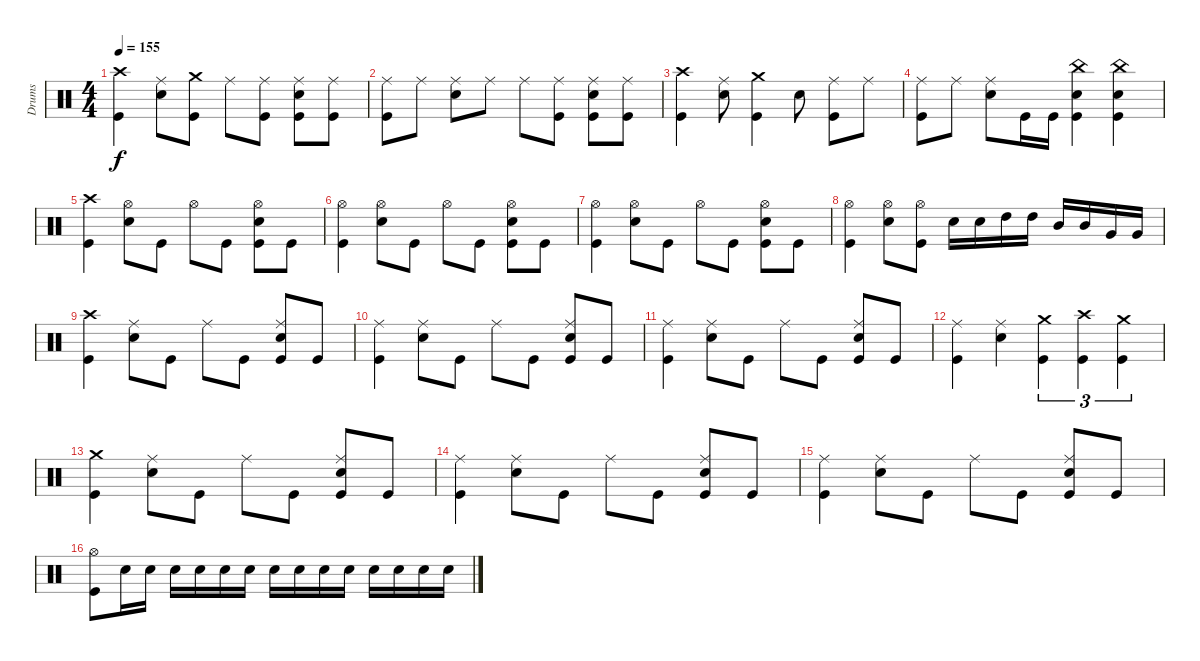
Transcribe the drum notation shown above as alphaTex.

\track ("Drums" "Drums") {instrument percussion}
\staff {score}
\articulation defaults
\ts (4 4)
\tempo 155
\clef neutral
\ks c
("Crash high (hit)" "Kick (hit)").4{dy f} ("Ride (middle)" "Snare (hit) 2").8 ("Crash medium (hit)" "Kick (hit)").8 "Ride (middle)".8 ("Ride (middle)" "Kick (hit)").8 ("Ride (middle)" "Snare (hit) 2" "Kick (hit)").8 ("Ride (middle)" "Kick (hit)").8 |
("Ride (middle)" "Kick (hit)").8 "Ride (middle)".8 ("Ride (middle)" "Snare (hit) 2").8 "Ride (middle)".8 "Ride (middle)".8 ("Ride (middle)" "Kick (hit)").8 ("Ride (middle)" "Snare (hit) 2" "Kick (hit)").8 ("Ride (middle)" "Kick (hit)").8 |
("Crash high (hit)" "Kick (hit)").4 ("Ride (middle)" "Snare (hit) 2").8 ("Crash medium (hit)" "Kick (hit)").4 "Snare (hit) 2".8 ("Ride (middle)" "Kick (hit)").8 "Ride (middle)".8 |
("Ride (middle)" "Kick (hit)").8 "Ride (middle)".8 ("Ride (middle)" "Snare (hit) 2").8 "Kick (hit)".16 "Kick (hit)".16 ("China (hit)" "Snare (hit) 2" "Kick (hit)").4 ("China (hit)" "Snare (hit) 2" "Kick (hit)").4 |
("Crash high (hit)" "Kick (hit)").4 ("Hi-Hat (open)" "Snare (hit) 2").8 "Kick (hit)".8 "Hi-Hat (open)".8 "Kick (hit)".8 ("Hi-Hat (open)" "Snare (hit) 2" "Kick (hit)").8 "Kick (hit)".8 |
("Hi-Hat (open)" "Kick (hit)").4 ("Hi-Hat (open)" "Snare (hit) 2").8 "Kick (hit)".8 "Hi-Hat (open)".8 "Kick (hit)".8 ("Hi-Hat (open)" "Snare (hit) 2" "Kick (hit)").8 "Kick (hit)".8 |
("Hi-Hat (open)" "Kick (hit)").4 ("Hi-Hat (open)" "Snare (hit) 2").8 "Kick (hit)".8 "Hi-Hat (open)".8 "Kick (hit)".8 ("Hi-Hat (open)" "Snare (hit) 2" "Kick (hit)").8 "Kick (hit)".8 |
("Hi-Hat (open)" "Kick (hit)").4 ("Hi-Hat (open)" "Snare (hit) 2").8 ("Hi-Hat (open)" "Kick (hit)").8 "Snare (hit) 2".16 "Snare (hit) 2".16 "High Tom (hit)".16 "High Tom (hit)".16 "Mid Tom (hit)".16 "Mid Tom (hit)".16 "Very Low Tom (hit)".16 "Very Low Tom (hit)".16 |
("Crash high (hit)" "Kick (hit)").4 ("Ride (middle)" "Snare (hit) 2").8 "Kick (hit)".8 "Ride (middle)".8 "Kick (hit)".8 ("Ride (middle)" "Snare (hit) 2" "Kick (hit)").8 "Kick (hit)".8 |
("Ride (middle)" "Kick (hit)").4 ("Ride (middle)" "Snare (hit) 2").8 "Kick (hit)".8 "Ride (middle)".8 "Kick (hit)".8 ("Ride (middle)" "Snare (hit) 2" "Kick (hit)").8 "Kick (hit)".8 |
("Ride (middle)" "Kick (hit)").4 ("Ride (middle)" "Snare (hit) 2").8 "Kick (hit)".8 "Ride (middle)".8 "Kick (hit)".8 ("Ride (middle)" "Snare (hit) 2" "Kick (hit)").8 "Kick (hit)".8 |
("Ride (middle)" "Kick (hit)").4 ("Ride (middle)" "Snare (hit) 2").4 ("Crash medium (hit)" "Kick (hit)").4{tu (3 2)} ("Crash high (hit)" "Kick (hit)").4{tu (3 2)} ("Crash medium (hit)" "Kick (hit)").4{tu (3 2)} |
("Crash medium (hit)" "Kick (hit)").4 ("Ride (middle)" "Snare (hit) 2").8 "Kick (hit)".8 "Ride (middle)".8 "Kick (hit)".8 ("Ride (middle)" "Snare (hit) 2" "Kick (hit)").8 "Kick (hit)".8 |
("Ride (middle)" "Kick (hit)").4 ("Ride (middle)" "Snare (hit) 2").8 "Kick (hit)".8 "Ride (middle)".8 "Kick (hit)".8 ("Ride (middle)" "Snare (hit) 2" "Kick (hit)").8 "Kick (hit)".8 |
("Ride (middle)" "Kick (hit)").4 ("Ride (middle)" "Snare (hit) 2").8 "Kick (hit)".8 "Ride (middle)".8 "Kick (hit)".8 ("Ride (middle)" "Snare (hit) 2" "Kick (hit)").8 "Kick (hit)".8 |
("Hi-Hat (open)" "Kick (hit)").8 "Snare (hit) 2".16 "Snare (hit) 2".16 "Snare (hit) 2".16 "Snare (hit) 2".16 "Snare (hit) 2".16 "Snare (hit) 2".16 "Snare (hit) 2".16 "Snare (hit) 2".16 "Snare (hit) 2".16 "Snare (hit) 2".16 "Snare (hit) 2".16 "Snare (hit) 2".16 "Snare (hit) 2".16 "Snare (hit) 2".16
